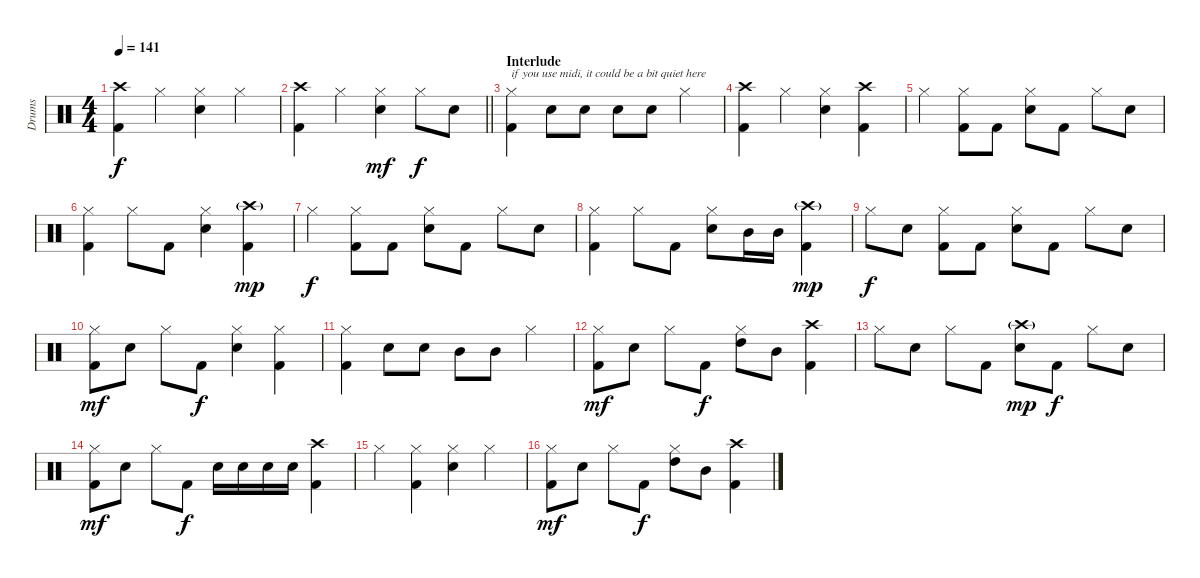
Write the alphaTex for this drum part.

\track ("Drums" "Drums") {instrument percussion}
\staff {score}
\articulation defaults
\ts (4 4)
\tempo 141
\clef neutral
\ks c
("Crash high (hit)" "Kick (hit) 2").4{dy f} "Hi-Hat (closed)".4 ("Hi-Hat (closed)" "Electric Snare (hit)").4 "Hi-Hat (closed)".4 |
\barLineRight lightlight
("Crash high (hit)" "Kick (hit) 2").4 "Hi-Hat (closed)".4 ("Hi-Hat (closed)" "Electric Snare (hit)").4{dy mf} "Hi-Hat (closed)".8{dy f} "Electric Snare (hit)".8 |
\section ("" "Interlude")
("Hi-Hat (closed)" "Kick (hit) 2").4{txt "if you use midi, it could be a bit quiet here" volume 11} "Electric Snare (hit)".8 "Electric Snare (hit)".8 "Electric Snare (hit)".8 "Electric Snare (hit)".8 "Hi-Hat (closed)".4 |
("Crash high (hit)" "Kick (hit) 2").4 "Hi-Hat (closed)".4 ("Hi-Hat (closed)" "Electric Snare (hit)").4 ("Crash high (hit)" "Kick (hit) 2").4 |
"Hi-Hat (closed)".4 ("Hi-Hat (closed)" "Kick (hit) 2").8 "Kick (hit) 2".8 ("Hi-Hat (closed)" "Electric Snare (hit)").8 "Kick (hit) 2".8 "Hi-Hat (closed)".8 "Electric Snare (hit)".8 |
("Hi-Hat (closed)" "Kick (hit) 2").4 "Hi-Hat (closed)".8 "Kick (hit) 2".8 ("Hi-Hat (closed)" "Electric Snare (hit)").4 ("Crash high (hit)"{g} "Kick (hit) 2").4{dy mp} |
"Hi-Hat (closed)".4{dy f} ("Hi-Hat (closed)" "Kick (hit) 2").8 "Kick (hit) 2".8 ("Hi-Hat (closed)" "Electric Snare (hit)").8 "Kick (hit) 2".8 "Hi-Hat (closed)".8 "Electric Snare (hit)".8 |
("Hi-Hat (closed)" "Kick (hit) 2").4 "Hi-Hat (closed)".8 "Kick (hit) 2".8 ("Hi-Hat (closed)" "Electric Snare (hit)").8 "Mid Tom (hit)".16 "Mid Tom (hit)".16 ("Crash high (hit)"{g} "Kick (hit) 2").4{dy mp} |
"Hi-Hat (closed)".8{dy f} "Electric Snare (hit)".8 ("Hi-Hat (closed)" "Kick (hit) 2").8 "Kick (hit) 2".8 ("Hi-Hat (closed)" "Electric Snare (hit)").8 "Kick (hit) 2".8 "Hi-Hat (closed)".8 "Electric Snare (hit)".8 |
("Hi-Hat (closed)" "Kick (hit) 2").8{dy mf} "Electric Snare (hit)".8 "Hi-Hat (closed)".8 "Kick (hit) 2".8{dy f} ("Hi-Hat (closed)" "Electric Snare (hit)").4 ("Hi-Hat (closed)" "Kick (hit) 2").4 |
("Hi-Hat (closed)" "Kick (hit) 2").4 "Electric Snare (hit)".8 "Electric Snare (hit)".8 "Mid Tom (hit)".8 "Mid Tom (hit)".8 "Hi-Hat (closed)".4 |
("Hi-Hat (closed)" "Kick (hit) 2").8{dy mf} "Electric Snare (hit)".8 "Hi-Hat (closed)".8 "Kick (hit) 2".8{dy f} ("Hi-Hat (closed)" "High Tom (hit)").8 "Mid Tom (hit)".8 ("Crash high (hit)" "Kick (hit) 2").4 |
"Hi-Hat (closed)".8 "Electric Snare (hit)".8 "Hi-Hat (closed)".8 "Kick (hit) 2".8 ("Crash high (hit)"{g} "Electric Snare (hit)").8{dy mp} "Kick (hit) 2".8{dy f} "Hi-Hat (closed)".8 "Electric Snare (hit)".8 |
("Hi-Hat (closed)" "Kick (hit) 2").8{dy mf} "Electric Snare (hit)".8 "Hi-Hat (closed)".8 "Kick (hit) 2".8{dy f} "Electric Snare (hit)".16 "Electric Snare (hit)".16 "Electric Snare (hit)".16 "Electric Snare (hit)".16 ("Crash high (hit)" "Kick (hit) 2").4 |
"Hi-Hat (closed)".4 ("Hi-Hat (closed)" "Kick (hit) 2").4 ("Hi-Hat (closed)" "Electric Snare (hit)").4 "Hi-Hat (closed)".4 |
("Hi-Hat (closed)" "Kick (hit) 2").8{dy mf} "Electric Snare (hit)".8 "Hi-Hat (closed)".8 "Kick (hit) 2".8{dy f} ("Hi-Hat (closed)" "High Tom (hit)").8 "Mid Tom (hit)".8 ("Crash high (hit)" "Kick (hit) 2").4
